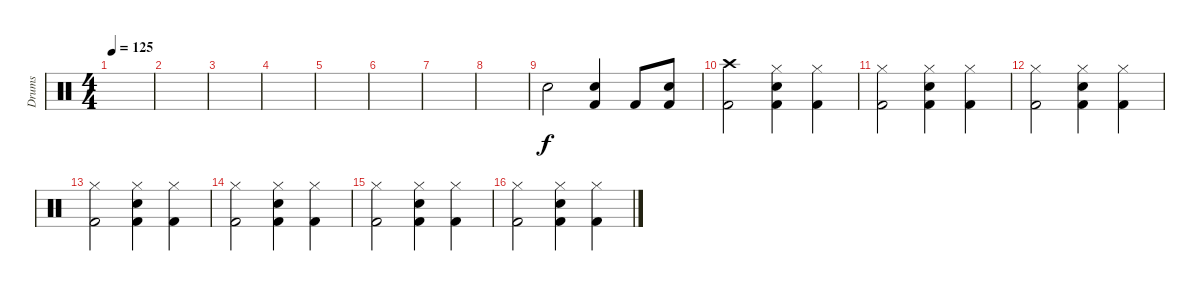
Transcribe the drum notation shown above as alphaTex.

\track ("Drums" "Drums") {instrument percussion}
\staff {score}
\articulation defaults
\ts (4 4)
\tempo 125
\clef neutral
\ks c
|
|
|
|
|
|
|
|
"Snare (hit) 2".2 ("Snare (hit) 2" "Kick (hit) 2").4 "Kick (hit) 2".8 ("Snare (hit) 2" "Kick (hit) 2").8 |
("Crash high (hit)" "Kick (hit) 2").2 ("Hi-Hat (closed)" "Snare (hit) 2" "Kick (hit) 2").4 ("Hi-Hat (closed)" "Kick (hit) 2").4 |
("Kick (hit) 2" "Hi-Hat (closed)").2 ("Hi-Hat (closed)" "Snare (hit) 2" "Kick (hit) 2").4 ("Hi-Hat (closed)" "Kick (hit) 2").4 |
("Kick (hit) 2" "Hi-Hat (closed)").2 ("Hi-Hat (closed)" "Snare (hit) 2" "Kick (hit) 2").4 ("Hi-Hat (closed)" "Kick (hit) 2").4 |
("Kick (hit) 2" "Hi-Hat (closed)").2 ("Hi-Hat (closed)" "Snare (hit) 2" "Kick (hit) 2").4 ("Hi-Hat (closed)" "Kick (hit) 2").4 |
("Kick (hit) 2" "Hi-Hat (closed)").2 ("Hi-Hat (closed)" "Snare (hit) 2" "Kick (hit) 2").4 ("Hi-Hat (closed)" "Kick (hit) 2").4 |
("Kick (hit) 2" "Hi-Hat (closed)").2 ("Hi-Hat (closed)" "Snare (hit) 2" "Kick (hit) 2").4 ("Hi-Hat (closed)" "Kick (hit) 2").4 |
("Kick (hit) 2" "Hi-Hat (closed)").2 ("Hi-Hat (closed)" "Snare (hit) 2" "Kick (hit) 2").4 ("Hi-Hat (closed)" "Kick (hit) 2").4
